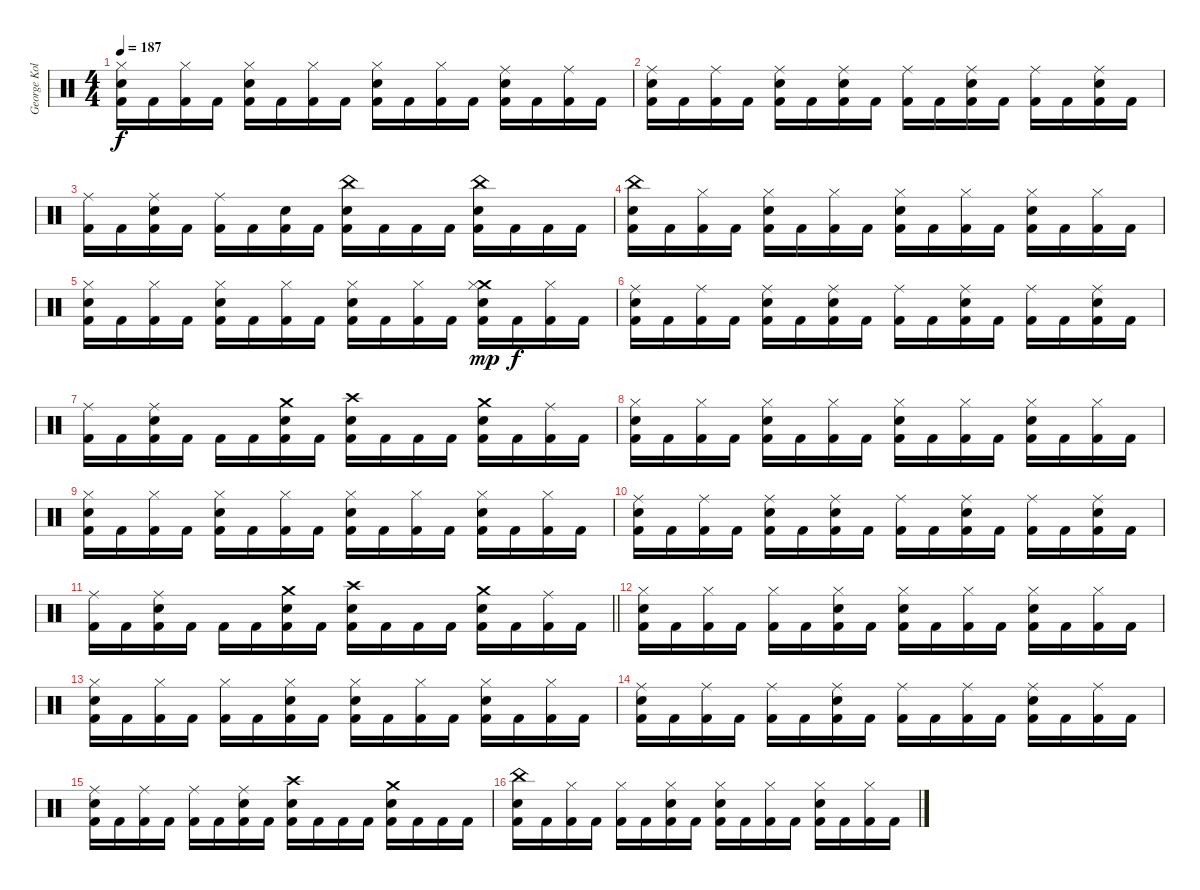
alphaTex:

\track ("George Kollias" "George Kol") {instrument percussion}
\staff {score}
\articulation defaults
\ts (4 4)
\tempo 187
\clef neutral
\ks c
("Hi-Hat (closed)" "Electric Snare (hit)" "Kick (hit) 2").16{dy f} "Kick (hit) 2".16 ("Hi-Hat (closed)" "Kick (hit) 2").16 "Kick (hit) 2".16 ("Hi-Hat (closed)" "Electric Snare (hit)" "Kick (hit) 2").16 "Kick (hit) 2".16 ("Hi-Hat (closed)" "Kick (hit) 2").16 "Kick (hit) 2".16 ("Hi-Hat (closed)" "Electric Snare (hit)" "Kick (hit) 2").16 "Kick (hit) 2".16 ("Hi-Hat (closed)" "Kick (hit) 2").16 "Kick (hit) 2".16 ("Ride (middle)" "Electric Snare (hit)" "Kick (hit) 2").16 "Kick (hit) 2".16 ("Ride (middle)" "Kick (hit) 2").16 "Kick (hit) 2".16 |
("Ride (middle)" "Electric Snare (hit)" "Kick (hit) 2").16 "Kick (hit) 2".16 ("Ride (middle)" "Kick (hit) 2").16 "Kick (hit) 2".16 ("Ride (middle)" "Electric Snare (hit)" "Kick (hit) 2").16 "Kick (hit) 2".16 ("Ride (middle)" "Electric Snare (hit)" "Kick (hit) 2").16 "Kick (hit) 2".16 ("Ride (middle)" "Kick (hit) 2").16 "Kick (hit) 2".16 ("Ride (middle)" "Electric Snare (hit)" "Kick (hit) 2").16 "Kick (hit) 2".16 ("Ride (middle)" "Kick (hit) 2").16 "Kick (hit) 2".16 ("Ride (middle)" "Electric Snare (hit)" "Kick (hit) 2").16 "Kick (hit) 2".16 |
("Ride (middle)" "Kick (hit) 2").16 "Kick (hit) 2".16 ("Ride (middle)" "Electric Snare (hit)" "Kick (hit) 2").16 "Kick (hit) 2".16 ("Ride (middle)" "Kick (hit) 2").16 "Kick (hit) 2".16 ("Electric Snare (hit)" "Kick (hit) 2").16 "Kick (hit) 2".16 ("China (hit)" "Electric Snare (hit)" "Kick (hit) 2").16 "Kick (hit) 2".16 "Kick (hit) 2".16 "Kick (hit) 2".16 ("China (hit)" "Electric Snare (hit)" "Kick (hit) 2").16 "Kick (hit) 2".16 "Kick (hit) 2".16 "Kick (hit) 2".16 |
("China (hit)" "Electric Snare (hit)" "Kick (hit) 2").16 "Kick (hit) 2".16 ("Hi-Hat (closed)" "Kick (hit) 2").16 "Kick (hit) 2".16 ("Hi-Hat (closed)" "Electric Snare (hit)" "Kick (hit) 2").16 "Kick (hit) 2".16 ("Hi-Hat (closed)" "Kick (hit) 2").16 "Kick (hit) 2".16 ("Hi-Hat (closed)" "Electric Snare (hit)" "Kick (hit) 2").16 "Kick (hit) 2".16 ("Hi-Hat (closed)" "Kick (hit) 2").16 "Kick (hit) 2".16 ("Hi-Hat (closed)" "Electric Snare (hit)" "Kick (hit) 2").16 "Kick (hit) 2".16 ("Hi-Hat (closed)" "Kick (hit) 2").16 "Kick (hit) 2".16 |
("Hi-Hat (closed)" "Electric Snare (hit)" "Kick (hit) 2").16 "Kick (hit) 2".16 ("Hi-Hat (closed)" "Kick (hit) 2").16 "Kick (hit) 2".16 ("Hi-Hat (closed)" "Electric Snare (hit)" "Kick (hit) 2").16 "Kick (hit) 2".16 ("Hi-Hat (closed)" "Kick (hit) 2").16 "Kick (hit) 2".16 ("Hi-Hat (closed)" "Electric Snare (hit)" "Kick (hit) 2").16 "Kick (hit) 2".16 ("Hi-Hat (closed)" "Kick (hit) 2").16 "Kick (hit) 2".16 ("Crash medium (hit)" "Hi-Hat (closed)" "Electric Snare (hit)" "Kick (hit) 2").16{dy mp} "Kick (hit) 2".16{dy f} ("Hi-Hat (closed)" "Kick (hit) 2").16 "Kick (hit) 2".16 |
("Ride (middle)" "Electric Snare (hit)" "Kick (hit) 2").16 "Kick (hit) 2".16 ("Ride (middle)" "Kick (hit) 2").16 "Kick (hit) 2".16 ("Ride (middle)" "Electric Snare (hit)" "Kick (hit) 2").16 "Kick (hit) 2".16 ("Ride (middle)" "Electric Snare (hit)" "Kick (hit) 2").16 "Kick (hit) 2".16 ("Ride (middle)" "Kick (hit) 2").16 "Kick (hit) 2".16 ("Ride (middle)" "Electric Snare (hit)" "Kick (hit) 2").16 "Kick (hit) 2".16 ("Ride (middle)" "Kick (hit) 2").16 "Kick (hit) 2".16 ("Ride (middle)" "Electric Snare (hit)" "Kick (hit) 2").16 "Kick (hit) 2".16 |
("Ride (middle)" "Kick (hit) 2").16 "Kick (hit) 2".16 ("Ride (middle)" "Electric Snare (hit)" "Kick (hit) 2").16 "Kick (hit) 2".16 "Kick (hit) 2".16 "Kick (hit) 2".16 ("Crash medium (hit)" "Electric Snare (hit)" "Kick (hit) 2").16 "Kick (hit) 2".16 ("Crash high (hit)" "Electric Snare (hit)" "Kick (hit) 2").16 "Kick (hit) 2".16 "Kick (hit) 2".16 "Kick (hit) 2".16 ("Crash medium (hit)" "Electric Snare (hit)" "Kick (hit) 2").16 "Kick (hit) 2".16 ("Ride (middle)" "Kick (hit) 2").16 "Kick (hit) 2".16 |
("Hi-Hat (closed)" "Electric Snare (hit)" "Kick (hit) 2").16 "Kick (hit) 2".16 ("Hi-Hat (closed)" "Kick (hit) 2").16 "Kick (hit) 2".16 ("Hi-Hat (closed)" "Electric Snare (hit)" "Kick (hit) 2").16 "Kick (hit) 2".16 ("Hi-Hat (closed)" "Kick (hit) 2").16 "Kick (hit) 2".16 ("Hi-Hat (closed)" "Electric Snare (hit)" "Kick (hit) 2").16 "Kick (hit) 2".16 ("Hi-Hat (closed)" "Kick (hit) 2").16 "Kick (hit) 2".16 ("Hi-Hat (closed)" "Electric Snare (hit)" "Kick (hit) 2").16 "Kick (hit) 2".16 ("Hi-Hat (closed)" "Kick (hit) 2").16 "Kick (hit) 2".16 |
("Hi-Hat (closed)" "Electric Snare (hit)" "Kick (hit) 2").16 "Kick (hit) 2".16 ("Hi-Hat (closed)" "Kick (hit) 2").16 "Kick (hit) 2".16 ("Hi-Hat (closed)" "Electric Snare (hit)" "Kick (hit) 2").16 "Kick (hit) 2".16 ("Hi-Hat (closed)" "Kick (hit) 2").16 "Kick (hit) 2".16 ("Hi-Hat (closed)" "Electric Snare (hit)" "Kick (hit) 2").16 "Kick (hit) 2".16 ("Hi-Hat (closed)" "Kick (hit) 2").16 "Kick (hit) 2".16 ("Hi-Hat (closed)" "Electric Snare (hit)" "Kick (hit) 2").16 "Kick (hit) 2".16 ("Hi-Hat (closed)" "Kick (hit) 2").16 "Kick (hit) 2".16 |
("Ride (middle)" "Electric Snare (hit)" "Kick (hit) 2").16 "Kick (hit) 2".16 ("Ride (middle)" "Kick (hit) 2").16 "Kick (hit) 2".16 ("Ride (middle)" "Electric Snare (hit)" "Kick (hit) 2").16 "Kick (hit) 2".16 ("Ride (middle)" "Electric Snare (hit)" "Kick (hit) 2").16 "Kick (hit) 2".16 ("Ride (middle)" "Kick (hit) 2").16 "Kick (hit) 2".16 ("Ride (middle)" "Electric Snare (hit)" "Kick (hit) 2").16 "Kick (hit) 2".16 ("Ride (middle)" "Kick (hit) 2").16 "Kick (hit) 2".16 ("Ride (middle)" "Electric Snare (hit)" "Kick (hit) 2").16 "Kick (hit) 2".16 |
\barLineRight lightlight
("Ride (middle)" "Kick (hit) 2").16 "Kick (hit) 2".16 ("Ride (middle)" "Electric Snare (hit)" "Kick (hit) 2").16 "Kick (hit) 2".16 "Kick (hit) 2".16 "Kick (hit) 2".16 ("Crash medium (hit)" "Electric Snare (hit)" "Kick (hit) 2").16 "Kick (hit) 2".16 ("Crash high (hit)" "Electric Snare (hit)" "Kick (hit) 2").16 "Kick (hit) 2".16 "Kick (hit) 2".16 "Kick (hit) 2".16 ("Crash medium (hit)" "Electric Snare (hit)" "Kick (hit) 2").16 "Kick (hit) 2".16 ("Ride (middle)" "Kick (hit) 2").16 "Kick (hit) 2".16 |
\section ("" "")
("Hi-Hat (closed)" "Electric Snare (hit)" "Kick (hit) 2").16 "Kick (hit) 2".16 ("Hi-Hat (closed)" "Kick (hit) 2").16 "Kick (hit) 2".16 ("Hi-Hat (closed)" "Kick (hit) 2").16 "Kick (hit) 2".16 ("Hi-Hat (closed)" "Electric Snare (hit)" "Kick (hit) 2").16 "Kick (hit) 2".16 ("Hi-Hat (closed)" "Electric Snare (hit)" "Kick (hit) 2").16 "Kick (hit) 2".16 ("Hi-Hat (closed)" "Kick (hit) 2").16 "Kick (hit) 2".16 ("Hi-Hat (closed)" "Electric Snare (hit)" "Kick (hit) 2").16 "Kick (hit) 2".16 ("Hi-Hat (closed)" "Kick (hit) 2").16 "Kick (hit) 2".16 |
("Hi-Hat (closed)" "Electric Snare (hit)" "Kick (hit) 2").16 "Kick (hit) 2".16 ("Hi-Hat (closed)" "Kick (hit) 2").16 "Kick (hit) 2".16 ("Hi-Hat (closed)" "Kick (hit) 2").16 "Kick (hit) 2".16 ("Hi-Hat (closed)" "Electric Snare (hit)" "Kick (hit) 2").16 "Kick (hit) 2".16 ("Hi-Hat (closed)" "Electric Snare (hit)" "Kick (hit) 2").16 "Kick (hit) 2".16 ("Hi-Hat (closed)" "Kick (hit) 2").16 "Kick (hit) 2".16 ("Hi-Hat (closed)" "Electric Snare (hit)" "Kick (hit) 2").16 "Kick (hit) 2".16 ("Hi-Hat (closed)" "Kick (hit) 2").16 "Kick (hit) 2".16 |
("Ride (middle)" "Electric Snare (hit)" "Kick (hit) 2").16 "Kick (hit) 2".16 ("Ride (middle)" "Kick (hit) 2").16 "Kick (hit) 2".16 ("Ride (middle)" "Kick (hit) 2").16 "Kick (hit) 2".16 ("Ride (middle)" "Electric Snare (hit)" "Kick (hit) 2").16 "Kick (hit) 2".16 ("Ride (middle)" "Kick (hit) 2").16 "Kick (hit) 2".16 ("Ride (middle)" "Kick (hit) 2").16 "Kick (hit) 2".16 ("Ride (middle)" "Electric Snare (hit)" "Kick (hit) 2").16 "Kick (hit) 2".16 ("Ride (middle)" "Kick (hit) 2").16 "Kick (hit) 2".16 |
("Ride (middle)" "Electric Snare (hit)" "Kick (hit) 2").16 "Kick (hit) 2".16 ("Ride (middle)" "Kick (hit) 2").16 "Kick (hit) 2".16 ("Ride (middle)" "Kick (hit) 2").16 "Kick (hit) 2".16 ("Ride (middle)" "Electric Snare (hit)" "Kick (hit) 2").16 "Kick (hit) 2".16 ("Crash high (hit)" "Electric Snare (hit)" "Kick (hit) 2").16 "Kick (hit) 2".16 "Kick (hit) 2".16 "Kick (hit) 2".16 ("Crash medium (hit)" "Electric Snare (hit)" "Kick (hit) 2").16 "Kick (hit) 2".16 "Kick (hit) 2".16 "Kick (hit) 2".16 |
("China (hit)" "Electric Snare (hit)" "Kick (hit) 2").16 "Kick (hit) 2".16 ("Hi-Hat (closed)" "Kick (hit) 2").16 "Kick (hit) 2".16 ("Hi-Hat (closed)" "Kick (hit) 2").16 "Kick (hit) 2".16 ("Hi-Hat (closed)" "Electric Snare (hit)" "Kick (hit) 2").16 "Kick (hit) 2".16 ("Hi-Hat (closed)" "Electric Snare (hit)" "Kick (hit) 2").16 "Kick (hit) 2".16 ("Hi-Hat (closed)" "Kick (hit) 2").16 "Kick (hit) 2".16 ("Hi-Hat (closed)" "Electric Snare (hit)" "Kick (hit) 2").16 "Kick (hit) 2".16 ("Hi-Hat (closed)" "Kick (hit) 2").16 "Kick (hit) 2".16
